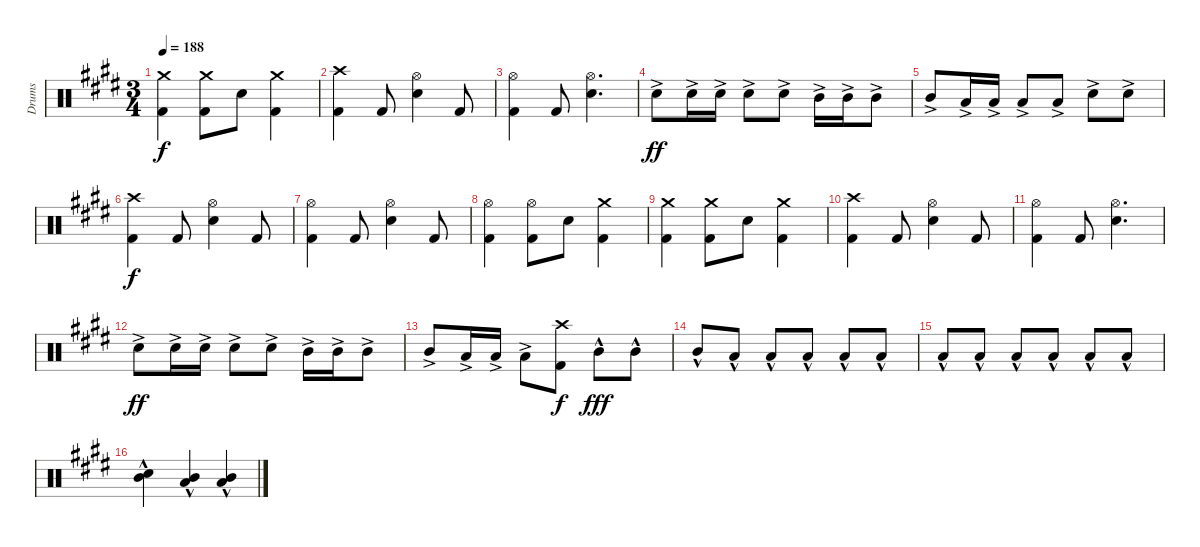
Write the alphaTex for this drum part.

\track ("Drums" "Drums") {instrument percussion}
\staff {score}
\articulation defaults
\ts (3 4)
\tempo 188
\clef neutral
\ks e
("Crash medium (hit)" "Kick (hit) 2").4{dy f} ("Crash medium (hit)" "Kick (hit) 2").8 "Electric Snare (hit)".8 ("Crash medium (hit)" "Kick (hit) 2").4 |
("Crash high (hit)" "Kick (hit) 2").4 "Kick (hit) 2".8 ("Hi-Hat (open)" "Electric Snare (hit)").4 "Kick (hit) 2".8 |
("Hi-Hat (open)" "Kick (hit) 2").4 "Kick (hit) 2".8 ("Hi-Hat (open)" "Electric Snare (hit)").4{d} |
"Electric Snare (hit)"{ac}.8{dy ff} "Electric Snare (hit)"{ac}.16 "Electric Snare (hit)"{ac}.16 "Electric Snare (hit)"{ac}.8 "Electric Snare (hit)"{ac}.8 "Mid Tom (hit)"{ac}.16 "Mid Tom (hit)"{ac}.16 "Mid Tom (hit)"{ac}.8 |
"Mid Tom (hit)"{ac}.8 "Low Tom (hit)"{ac}.16 "Low Tom (hit)"{ac}.16 "Low Tom (hit)"{ac}.8 "Low Tom (hit)"{ac}.8 "Electric Snare (hit)"{ac}.8 "Electric Snare (hit)"{ac}.8 |
("Crash high (hit)" "Kick (hit) 2").4{dy f} "Kick (hit) 2".8 ("Hi-Hat (open)" "Electric Snare (hit)").4 "Kick (hit) 2".8 |
("Hi-Hat (open)" "Kick (hit) 2").4 "Kick (hit) 2".8 ("Hi-Hat (open)" "Electric Snare (hit)").4 "Kick (hit) 2".8 |
("Hi-Hat (open)" "Kick (hit) 2").4 ("Hi-Hat (open)" "Kick (hit) 2").8 "Electric Snare (hit)".8 ("Crash medium (hit)" "Kick (hit) 2").4 |
("Crash medium (hit)" "Kick (hit) 2").4 ("Crash medium (hit)" "Kick (hit) 2").8 "Electric Snare (hit)".8 ("Crash medium (hit)" "Kick (hit) 2").4 |
("Crash high (hit)" "Kick (hit) 2").4 "Kick (hit) 2".8 ("Hi-Hat (open)" "Electric Snare (hit)").4 "Kick (hit) 2".8 |
("Hi-Hat (open)" "Kick (hit) 2").4 "Kick (hit) 2".8 ("Hi-Hat (open)" "Electric Snare (hit)").4{d} |
"Electric Snare (hit)"{ac}.8{dy ff} "Electric Snare (hit)"{ac}.16 "Electric Snare (hit)"{ac}.16 "Electric Snare (hit)"{ac}.8 "Electric Snare (hit)"{ac}.8 "Mid Tom (hit)"{ac}.16 "Mid Tom (hit)"{ac}.16 "Mid Tom (hit)"{ac}.8 |
"Mid Tom (hit)"{ac}.8 "Low Tom (hit)"{ac}.16 "Low Tom (hit)"{ac}.16 "Low Tom (hit)"{ac}.8 ("Crash high (hit)" "Kick (hit) 2").8{dy f} "Mid Tom (hit)"{hac}.8{dy fff} "Mid Tom (hit)"{hac}.8 |
"Mid Tom (hit)"{hac}.8 "Low Tom (hit)"{hac}.8 "Low Tom (hit)"{hac}.8 "Low Tom (hit)"{hac}.8 "Low Tom (hit)"{hac}.8 "Low Tom (hit)"{hac}.8 |
"Low Tom (hit)"{hac}.8 "Low Floor Tom (hit)"{hac}.8 "Low Floor Tom (hit)"{hac}.8 "Low Floor Tom (hit)"{hac}.8 "Low Floor Tom (hit)"{hac}.8 "Low Floor Tom (hit)"{hac}.8 |
("Mid Tom (hit)"{hac} "Electric Snare (hit)"{hac}).4 ("Low Tom (hit)"{hac} "Mid Tom (hit)"{hac}).4 ("Mid Tom (hit)"{hac} "Low Floor Tom (hit)"{hac}).4
